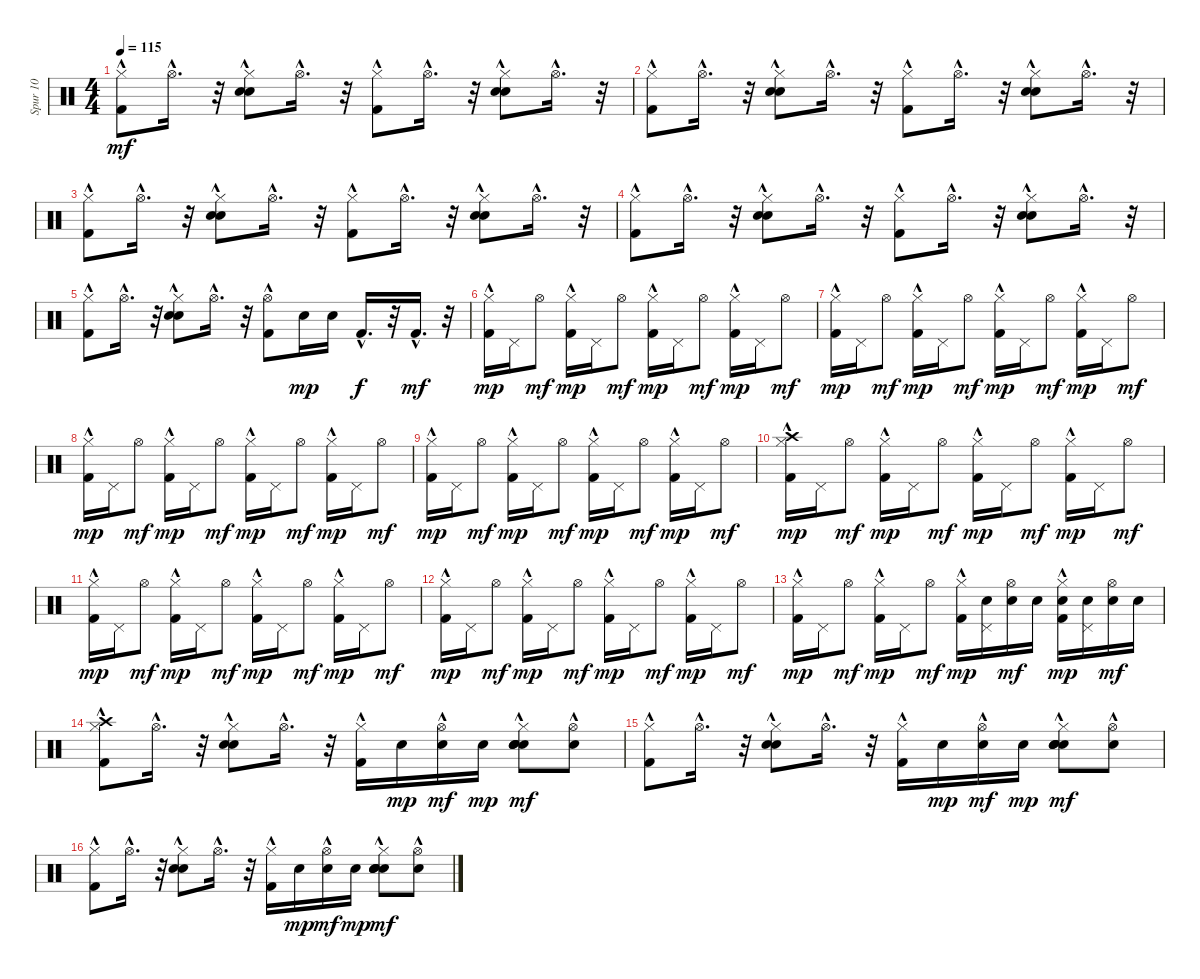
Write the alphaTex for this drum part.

\track ("Spur 10" "Spur 10") {instrument percussion}
\staff {score}
\articulation defaults
\ts (4 4)
\tempo 115
\clef neutral
\ks c
("Hi-Hat (closed)"{hac} "Kick (hit) 2"{hac}).8{dy mf} "Hi-Hat (open)"{hac}.16{d} r.32 ("Hi-Hat (closed)"{hac} "Snare (hit) 2"{hac} "Hand Clap (hit)"{hac}).8 "Hi-Hat (open)"{hac}.16{d} r.32 ("Hi-Hat (closed)"{hac} "Kick (hit) 2"{hac}).8 "Hi-Hat (open)"{hac}.16{d} r.32 ("Hi-Hat (closed)"{hac} "Snare (hit) 2"{hac} "Hand Clap (hit)"{hac}).8 "Hi-Hat (open)"{hac}.16{d} r.32 |
("Hi-Hat (closed)"{hac} "Kick (hit) 2"{hac}).8 "Hi-Hat (open)"{hac}.16{d} r.32 ("Hi-Hat (closed)"{hac} "Hand Clap (hit)"{hac} "Snare (hit) 2"{hac}).8 "Hi-Hat (open)"{hac}.16{d} r.32 ("Hi-Hat (closed)"{hac} "Kick (hit) 2"{hac}).8 "Hi-Hat (open)"{hac}.16{d} r.32 ("Hi-Hat (closed)"{hac} "Snare (hit) 2"{hac} "Hand Clap (hit)"{hac}).8 "Hi-Hat (open)"{hac}.16{d} r.32 |
("Hi-Hat (closed)"{hac} "Kick (hit) 2"{hac}).8 "Hi-Hat (open)"{hac}.16{d} r.32 ("Hi-Hat (closed)"{hac} "Snare (hit) 2"{hac} "Hand Clap (hit)"{hac}).8 "Hi-Hat (open)"{hac}.16{d} r.32 ("Hi-Hat (closed)"{hac} "Kick (hit) 2"{hac}).8 "Hi-Hat (open)"{hac}.16{d} r.32 ("Hi-Hat (closed)"{hac} "Snare (hit) 2"{hac} "Hand Clap (hit)"{hac}).8 "Hi-Hat (open)"{hac}.16{d} r.32 |
("Hi-Hat (closed)"{hac} "Kick (hit) 2"{hac}).8 "Hi-Hat (open)"{hac}.16{d} r.32 ("Hi-Hat (closed)"{hac} "Hand Clap (hit)"{hac} "Snare (hit) 2"{hac}).8 "Hi-Hat (open)"{hac}.16{d} r.32 ("Hi-Hat (closed)"{hac} "Kick (hit) 2"{hac}).8 "Hi-Hat (open)"{hac}.16{d} r.32 ("Hi-Hat (closed)"{hac} "Snare (hit) 2"{hac} "Hand Clap (hit)"{hac}).8 "Hi-Hat (open)"{hac}.16{d} r.32 |
("Hi-Hat (closed)"{hac} "Kick (hit) 2"{hac}).8 "Hi-Hat (open)"{hac}.16{d} r.32 ("Hi-Hat (closed)"{hac} "Snare (hit) 2"{hac} "Hand Clap (hit)"{hac}).8 "Hi-Hat (open)"{hac}.16{d} r.32 ("Hi-Hat (open)"{hac} "Kick (hit) 2"{hac}).8 "Snare (hit) 2".16{dy mp} "Snare (hit) 2".16 "Kick (hit) 2"{hac}.16{d dy f} r.32 "Kick (hit) 2"{hac}.16{d dy mf} r.32 |
("Hi-Hat (closed)" "Kick (hit) 2"{hac}).16{dy mp} "Pedal Hi-Hat (hit)".16 "Hi-Hat (open)".8{dy mf} ("Hi-Hat (closed)" "Kick (hit) 2"{hac}).16{dy mp} "Pedal Hi-Hat (hit)".16 "Hi-Hat (open)".8{dy mf} ("Hi-Hat (closed)" "Kick (hit) 2"{hac}).16{dy mp} "Pedal Hi-Hat (hit)".16 "Hi-Hat (open)".8{dy mf} ("Hi-Hat (closed)" "Kick (hit) 2"{hac}).16{dy mp} "Pedal Hi-Hat (hit)".16 "Hi-Hat (open)".8{dy mf} |
("Hi-Hat (closed)" "Kick (hit) 2"{hac}).16{dy mp} "Pedal Hi-Hat (hit)".16 "Hi-Hat (open)".8{dy mf} ("Hi-Hat (closed)" "Kick (hit) 2"{hac}).16{dy mp} "Pedal Hi-Hat (hit)".16 "Hi-Hat (open)".8{dy mf} ("Hi-Hat (closed)" "Kick (hit) 2"{hac}).16{dy mp} "Pedal Hi-Hat (hit)".16 "Hi-Hat (open)".8{dy mf} ("Hi-Hat (closed)" "Kick (hit) 2"{hac}).16{dy mp} "Pedal Hi-Hat (hit)".16 "Hi-Hat (open)".8{dy mf} |
("Hi-Hat (closed)" "Kick (hit) 2"{hac}).16{dy mp} "Pedal Hi-Hat (hit)".16 "Hi-Hat (open)".8{dy mf} ("Hi-Hat (closed)" "Kick (hit) 2"{hac}).16{dy mp} "Pedal Hi-Hat (hit)".16 "Hi-Hat (open)".8{dy mf} ("Hi-Hat (closed)" "Kick (hit) 2"{hac}).16{dy mp} "Pedal Hi-Hat (hit)".16 "Hi-Hat (open)".8{dy mf} ("Hi-Hat (closed)" "Kick (hit) 2"{hac}).16{dy mp} "Pedal Hi-Hat (hit)".16 "Hi-Hat (open)".8{dy mf} |
("Hi-Hat (closed)" "Kick (hit) 2"{hac}).16{dy mp} "Pedal Hi-Hat (hit)".16 "Hi-Hat (open)".8{dy mf} ("Hi-Hat (closed)" "Kick (hit) 2"{hac}).16{dy mp} "Pedal Hi-Hat (hit)".16 "Hi-Hat (open)".8{dy mf} ("Hi-Hat (closed)" "Kick (hit) 2"{hac}).16{dy mp} "Pedal Hi-Hat (hit)".16 "Hi-Hat (open)".8{dy mf} ("Hi-Hat (closed)" "Kick (hit) 2"{hac}).16{dy mp} "Pedal Hi-Hat (hit)".16 "Hi-Hat (open)".8{dy mf} |
("Crash high (hit)"{hac} "Hi-Hat (closed)" "Kick (hit) 2"{hac}).16{dy mp} "Pedal Hi-Hat (hit)".16 "Hi-Hat (open)".8{dy mf} ("Hi-Hat (closed)" "Kick (hit) 2"{hac}).16{dy mp} "Pedal Hi-Hat (hit)".16 "Hi-Hat (open)".8{dy mf} ("Hi-Hat (closed)" "Kick (hit) 2"{hac}).16{dy mp} "Pedal Hi-Hat (hit)".16 "Hi-Hat (open)".8{dy mf} ("Hi-Hat (closed)" "Kick (hit) 2"{hac}).16{dy mp} "Pedal Hi-Hat (hit)".16 "Hi-Hat (open)".8{dy mf} |
("Hi-Hat (closed)" "Kick (hit) 2"{hac}).16{dy mp} "Pedal Hi-Hat (hit)".16 "Hi-Hat (open)".8{dy mf} ("Hi-Hat (closed)" "Kick (hit) 2"{hac}).16{dy mp} "Pedal Hi-Hat (hit)".16 "Hi-Hat (open)".8{dy mf} ("Hi-Hat (closed)" "Kick (hit) 2"{hac}).16{dy mp} "Pedal Hi-Hat (hit)".16 "Hi-Hat (open)".8{dy mf} ("Hi-Hat (closed)" "Kick (hit) 2"{hac}).16{dy mp} "Pedal Hi-Hat (hit)".16 "Hi-Hat (open)".8{dy mf} |
("Hi-Hat (closed)" "Kick (hit) 2"{hac}).16{dy mp} "Pedal Hi-Hat (hit)".16 "Hi-Hat (open)".8{dy mf} ("Hi-Hat (closed)" "Kick (hit) 2"{hac}).16{dy mp} "Pedal Hi-Hat (hit)".16 "Hi-Hat (open)".8{dy mf} ("Hi-Hat (closed)" "Kick (hit) 2"{hac}).16{dy mp} "Pedal Hi-Hat (hit)".16 "Hi-Hat (open)".8{dy mf} ("Hi-Hat (closed)" "Kick (hit) 2"{hac}).16{dy mp} "Pedal Hi-Hat (hit)".16 "Hi-Hat (open)".8{dy mf} |
("Hi-Hat (closed)" "Kick (hit) 2"{hac}).16{dy mp} "Pedal Hi-Hat (hit)".16 "Hi-Hat (open)".8{dy mf} ("Hi-Hat (closed)" "Kick (hit) 2"{hac}).16{dy mp} "Pedal Hi-Hat (hit)".16 "Hi-Hat (open)".8{dy mf} ("Hi-Hat (closed)" "Kick (hit) 2"{hac}).16{dy mp} ("Snare (hit) 2" "Pedal Hi-Hat (hit)").16 ("Snare (hit) 2" "Hi-Hat (open)").16{dy mf} "Snare (hit) 2".16 ("Snare (hit) 2" "Hi-Hat (closed)" "Kick (hit) 2"{hac}).16{dy mp} ("Snare (hit) 2" "Pedal Hi-Hat (hit)").16 ("Snare (hit) 2" "Hi-Hat (open)").16{dy mf} "Snare (hit) 2".16 |
("Crash high (hit)"{hac} "Hi-Hat (closed)"{hac} "Kick (hit) 2"{hac}).8 "Hi-Hat (open)"{hac}.16{d} r.32 ("Hi-Hat (closed)"{hac} "Hand Clap (hit)"{hac} "Snare (hit) 2"{hac}).8 "Hi-Hat (open)"{hac}.16{d} r.32 ("Hi-Hat (closed)"{hac} "Kick (hit) 2"{hac}).16 "Snare (hit) 2".16{dy mp} ("Snare (hit) 2" "Hi-Hat (open)"{hac}).16{dy mf} "Snare (hit) 2".16{dy mp} ("Snare (hit) 2" "Snare (hit) 2" "Hi-Hat (closed)"{hac} "Snare (hit) 2" "Hand Clap (hit)"{hac}).8{dy mf} ("Snare (hit) 2" "Hi-Hat (open)"{hac}).8 |
("Hi-Hat (closed)"{hac} "Kick (hit) 2"{hac}).8 "Hi-Hat (open)"{hac}.16{d} r.32 ("Hi-Hat (closed)"{hac} "Snare (hit) 2"{hac} "Hand Clap (hit)"{hac}).8 "Hi-Hat (open)"{hac}.16{d} r.32 ("Hi-Hat (closed)"{hac} "Kick (hit) 2"{hac}).16 "Snare (hit) 2".16{dy mp} ("Snare (hit) 2" "Hi-Hat (open)"{hac}).16{dy mf} "Snare (hit) 2".16{dy mp} ("Snare (hit) 2" "Snare (hit) 2" "Hi-Hat (closed)"{hac} "Snare (hit) 2" "Hand Clap (hit)"{hac}).8{dy mf} ("Snare (hit) 2" "Hi-Hat (open)"{hac}).8 |
("Hi-Hat (closed)"{hac} "Kick (hit) 2"{hac}).8 "Hi-Hat (open)"{hac}.16{d} r.32 ("Hi-Hat (closed)"{hac} "Hand Clap (hit)"{hac} "Snare (hit) 2"{hac}).8 "Hi-Hat (open)"{hac}.16{d} r.32 ("Hi-Hat (closed)"{hac} "Kick (hit) 2"{hac}).16 "Snare (hit) 2".16{dy mp} ("Snare (hit) 2" "Hi-Hat (open)"{hac}).16{dy mf} "Snare (hit) 2".16{dy mp} ("Snare (hit) 2" "Snare (hit) 2" "Hi-Hat (closed)"{hac} "Snare (hit) 2" "Hand Clap (hit)"{hac}).8{dy mf} ("Snare (hit) 2" "Hi-Hat (open)"{hac}).8
